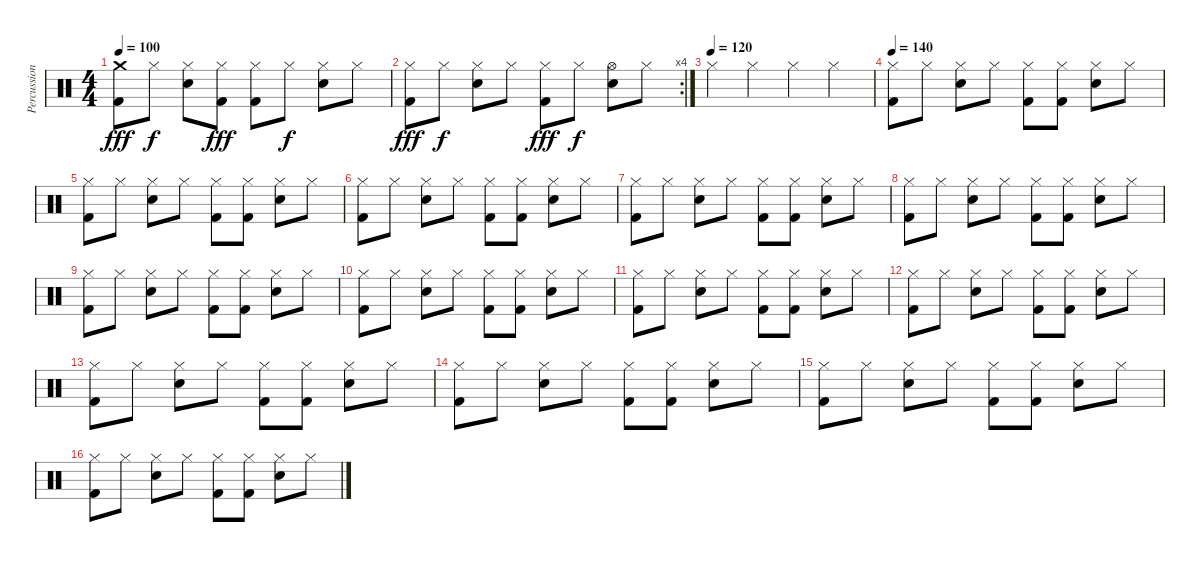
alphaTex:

\track ("Percussion" "Percussion") {instrument percussion}
\staff {score}
\articulation defaults
\ts (4 4)
\tempo 100
\clef neutral
\ks c
("Crash medium (hit)" "Kick (hit) 2").8{dy fff} "Hi-Hat (closed)".8{dy f} ("Hi-Hat (closed)" "Electric Snare (hit)").8 ("Hi-Hat (closed)" "Kick (hit) 2").8{dy fff} ("Hi-Hat (closed)" "Kick (hit) 2").8 "Hi-Hat (closed)".8{dy f} ("Hi-Hat (closed)" "Electric Snare (hit)").8 "Hi-Hat (closed)".8 |
\rc 4
("Hi-Hat (closed)" "Kick (hit) 2").8{dy fff} "Hi-Hat (closed)".8{dy f} ("Hi-Hat (closed)" "Electric Snare (hit)").8 "Hi-Hat (closed)".8 ("Hi-Hat (closed)" "Kick (hit) 2").8{dy fff} "Hi-Hat (closed)".8{dy f} ("Hi-Hat (open)" "Electric Snare (hit)").8 "Hi-Hat (closed)".8 |
\tempo (120)
"Hi-Hat (closed)".4 "Hi-Hat (closed)".4 "Hi-Hat (closed)".4 "Hi-Hat (closed)".4 |
\tempo 140
("Hi-Hat (closed)" "Kick (hit) 2").8 "Hi-Hat (closed)".8 ("Hi-Hat (closed)" "Snare (hit) 2").8 "Hi-Hat (closed)".8 ("Hi-Hat (closed)" "Kick (hit) 2").8 ("Hi-Hat (closed)" "Kick (hit) 2").8 ("Hi-Hat (closed)" "Snare (hit) 2").8 "Hi-Hat (closed)".8 |
("Hi-Hat (closed)" "Kick (hit) 2").8 "Hi-Hat (closed)".8 ("Hi-Hat (closed)" "Snare (hit) 2").8 "Hi-Hat (closed)".8 ("Hi-Hat (closed)" "Kick (hit) 2").8 ("Hi-Hat (closed)" "Kick (hit) 2").8 ("Hi-Hat (closed)" "Snare (hit) 2").8 "Hi-Hat (closed)".8 |
("Hi-Hat (closed)" "Kick (hit) 2").8 "Hi-Hat (closed)".8 ("Hi-Hat (closed)" "Snare (hit) 2").8 "Hi-Hat (closed)".8 ("Hi-Hat (closed)" "Kick (hit) 2").8 ("Hi-Hat (closed)" "Kick (hit) 2").8 ("Hi-Hat (closed)" "Snare (hit) 2").8 "Hi-Hat (closed)".8 |
("Hi-Hat (closed)" "Kick (hit) 2").8 "Hi-Hat (closed)".8 ("Hi-Hat (closed)" "Snare (hit) 2").8 "Hi-Hat (closed)".8 ("Hi-Hat (closed)" "Kick (hit) 2").8 ("Hi-Hat (closed)" "Kick (hit) 2").8 ("Hi-Hat (closed)" "Snare (hit) 2").8 "Hi-Hat (closed)".8 |
("Hi-Hat (closed)" "Kick (hit) 2").8 "Hi-Hat (closed)".8 ("Hi-Hat (closed)" "Snare (hit) 2").8 "Hi-Hat (closed)".8 ("Hi-Hat (closed)" "Kick (hit) 2").8 ("Hi-Hat (closed)" "Kick (hit) 2").8 ("Hi-Hat (closed)" "Snare (hit) 2").8 "Hi-Hat (closed)".8 |
("Hi-Hat (closed)" "Kick (hit) 2").8 "Hi-Hat (closed)".8 ("Hi-Hat (closed)" "Snare (hit) 2").8 "Hi-Hat (closed)".8 ("Hi-Hat (closed)" "Kick (hit) 2").8 ("Hi-Hat (closed)" "Kick (hit) 2").8 ("Hi-Hat (closed)" "Snare (hit) 2").8 "Hi-Hat (closed)".8 |
("Hi-Hat (closed)" "Kick (hit) 2").8 "Hi-Hat (closed)".8 ("Hi-Hat (closed)" "Snare (hit) 2").8 "Hi-Hat (closed)".8 ("Hi-Hat (closed)" "Kick (hit) 2").8 ("Hi-Hat (closed)" "Kick (hit) 2").8 ("Hi-Hat (closed)" "Snare (hit) 2").8 "Hi-Hat (closed)".8 |
("Hi-Hat (closed)" "Kick (hit) 2").8 "Hi-Hat (closed)".8 ("Hi-Hat (closed)" "Snare (hit) 2").8 "Hi-Hat (closed)".8 ("Hi-Hat (closed)" "Kick (hit) 2").8 ("Hi-Hat (closed)" "Kick (hit) 2").8 ("Hi-Hat (closed)" "Snare (hit) 2").8 "Hi-Hat (closed)".8 |
("Hi-Hat (closed)" "Kick (hit) 2").8 "Hi-Hat (closed)".8 ("Hi-Hat (closed)" "Snare (hit) 2").8 "Hi-Hat (closed)".8 ("Hi-Hat (closed)" "Kick (hit) 2").8 ("Hi-Hat (closed)" "Kick (hit) 2").8 ("Hi-Hat (closed)" "Snare (hit) 2").8 "Hi-Hat (closed)".8 |
("Hi-Hat (closed)" "Kick (hit) 2").8 "Hi-Hat (closed)".8 ("Hi-Hat (closed)" "Snare (hit) 2").8 "Hi-Hat (closed)".8 ("Hi-Hat (closed)" "Kick (hit) 2").8 ("Hi-Hat (closed)" "Kick (hit) 2").8 ("Hi-Hat (closed)" "Snare (hit) 2").8 "Hi-Hat (closed)".8 |
("Hi-Hat (closed)" "Kick (hit) 2").8 "Hi-Hat (closed)".8 ("Hi-Hat (closed)" "Snare (hit) 2").8 "Hi-Hat (closed)".8 ("Hi-Hat (closed)" "Kick (hit) 2").8 ("Hi-Hat (closed)" "Kick (hit) 2").8 ("Hi-Hat (closed)" "Snare (hit) 2").8 "Hi-Hat (closed)".8 |
("Hi-Hat (closed)" "Kick (hit) 2").8 "Hi-Hat (closed)".8 ("Hi-Hat (closed)" "Snare (hit) 2").8 "Hi-Hat (closed)".8 ("Hi-Hat (closed)" "Kick (hit) 2").8 ("Hi-Hat (closed)" "Kick (hit) 2").8 ("Hi-Hat (closed)" "Snare (hit) 2").8 "Hi-Hat (closed)".8 |
("Hi-Hat (closed)" "Kick (hit) 2").8 "Hi-Hat (closed)".8 ("Hi-Hat (closed)" "Snare (hit) 2").8 "Hi-Hat (closed)".8 ("Hi-Hat (closed)" "Kick (hit) 2").8 ("Hi-Hat (closed)" "Kick (hit) 2").8 ("Hi-Hat (closed)" "Snare (hit) 2").8 "Hi-Hat (closed)".8
